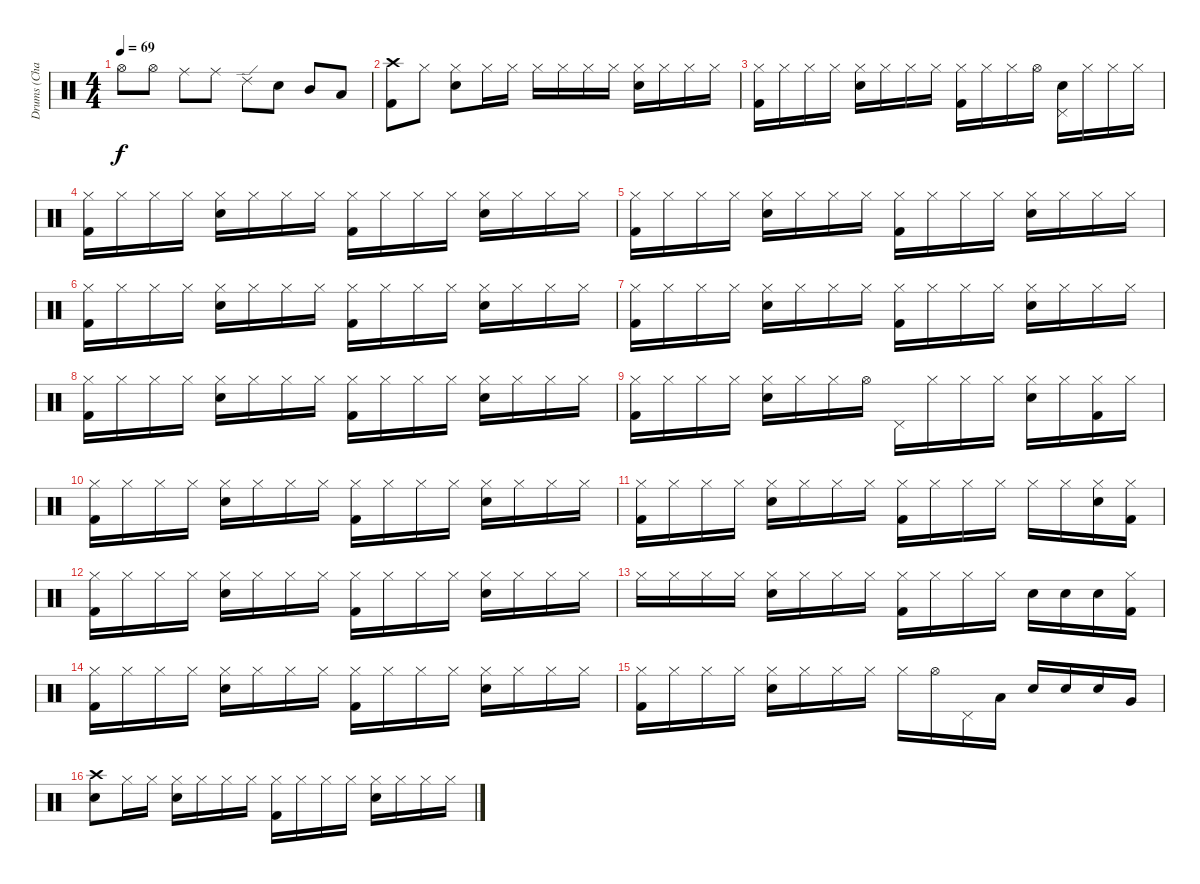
\track ("Drums (Charlie)" "Drums (Cha") {instrument percussion}
\staff {score}
\articulation defaults
\ts (4 4)
\tempo 69
\clef neutral
\ks c "Hi-Hat (open)".8{dy f} "Hi-Hat (open)".8 "Ride (middle)".8 "Ride (middle)".8 "Ride (edge) 2".8 "Snare (hit) 2".8 "Mid Tom (hit)".8 "Low Tom (hit)".8
|
("Crash high (hit)" "Kick (hit) 2").8 "Hi-Hat (closed)".8 ("Hi-Hat (closed)" "Snare (hit) 2").8 "Hi-Hat (closed)".16 "Hi-Hat (closed)".16 "Hi-Hat (closed)".16 "Hi-Hat (closed)".16 "Hi-Hat (closed)".16 "Hi-Hat (closed)".16 ("Hi-Hat (closed)" "Snare (hit) 2").16 "Hi-Hat (closed)".16 "Hi-Hat (closed)".16 "Hi-Hat (closed)".16 |
("Hi-Hat (closed)" "Kick (hit) 2").16 "Hi-Hat (closed)".16 "Hi-Hat (closed)".16 "Hi-Hat (closed)".16 ("Hi-Hat (closed)" "Snare (hit) 2").16 "Hi-Hat (closed)".16 "Hi-Hat (closed)".16 "Hi-Hat (closed)".16 ("Hi-Hat (closed)" "Kick (hit) 2").16 "Hi-Hat (closed)".16 "Hi-Hat (closed)".16 "Hi-Hat (open)".16 ("Pedal Hi-Hat (hit)" "Snare (hit) 2").16 "Hi-Hat (closed)".16 "Hi-Hat (closed)".16 "Hi-Hat (closed)".16 |
("Hi-Hat (closed)" "Kick (hit) 2").16 "Hi-Hat (closed)".16 "Hi-Hat (closed)".16 "Hi-Hat (closed)".16 ("Hi-Hat (closed)" "Snare (hit) 2").16 "Hi-Hat (closed)".16 "Hi-Hat (closed)".16 "Hi-Hat (closed)".16 ("Hi-Hat (closed)" "Kick (hit) 2").16 "Hi-Hat (closed)".16 "Hi-Hat (closed)".16 "Hi-Hat (closed)".16 ("Hi-Hat (closed)" "Snare (hit) 2").16 "Hi-Hat (closed)".16 "Hi-Hat (closed)".16 "Hi-Hat (closed)".16 |
("Hi-Hat (closed)" "Kick (hit) 2").16 "Hi-Hat (closed)".16 "Hi-Hat (closed)".16 "Hi-Hat (closed)".16 ("Hi-Hat (closed)" "Snare (hit) 2").16 "Hi-Hat (closed)".16 "Hi-Hat (closed)".16 "Hi-Hat (closed)".16 ("Hi-Hat (closed)" "Kick (hit) 2").16 "Hi-Hat (closed)".16 "Hi-Hat (closed)".16 "Hi-Hat (closed)".16 ("Hi-Hat (closed)" "Snare (hit) 2").16 "Hi-Hat (closed)".16 "Hi-Hat (closed)".16 "Hi-Hat (closed)".16 |
("Hi-Hat (closed)" "Kick (hit) 2").16 "Hi-Hat (closed)".16 "Hi-Hat (closed)".16 "Hi-Hat (closed)".16 ("Hi-Hat (closed)" "Snare (hit) 2").16 "Hi-Hat (closed)".16 "Hi-Hat (closed)".16 "Hi-Hat (closed)".16 ("Hi-Hat (closed)" "Kick (hit) 2").16 "Hi-Hat (closed)".16 "Hi-Hat (closed)".16 "Hi-Hat (closed)".16 ("Hi-Hat (closed)" "Snare (hit) 2").16 "Hi-Hat (closed)".16 "Hi-Hat (closed)".16 "Hi-Hat (closed)".16 |
("Hi-Hat (closed)" "Kick (hit) 2").16 "Hi-Hat (closed)".16 "Hi-Hat (closed)".16 "Hi-Hat (closed)".16 ("Hi-Hat (closed)" "Snare (hit) 2").16 "Hi-Hat (closed)".16 "Hi-Hat (closed)".16 "Hi-Hat (closed)".16 ("Hi-Hat (closed)" "Kick (hit) 2").16 "Hi-Hat (closed)".16 "Hi-Hat (closed)".16 "Hi-Hat (closed)".16 ("Hi-Hat (closed)" "Snare (hit) 2").16 "Hi-Hat (closed)".16 "Hi-Hat (closed)".16 "Hi-Hat (closed)".16 |
("Hi-Hat (closed)" "Kick (hit) 2").16 "Hi-Hat (closed)".16 "Hi-Hat (closed)".16 "Hi-Hat (closed)".16 ("Hi-Hat (closed)" "Snare (hit) 2").16 "Hi-Hat (closed)".16 "Hi-Hat (closed)".16 "Hi-Hat (closed)".16 ("Hi-Hat (closed)" "Kick (hit) 2").16 "Hi-Hat (closed)".16 "Hi-Hat (closed)".16 "Hi-Hat (closed)".16 ("Hi-Hat (closed)" "Snare (hit) 2").16 "Hi-Hat (closed)".16 "Hi-Hat (closed)".16 "Hi-Hat (closed)".16 |
("Hi-Hat (closed)" "Kick (hit) 2").16 "Hi-Hat (closed)".16 "Hi-Hat (closed)".16 "Hi-Hat (closed)".16 ("Hi-Hat (closed)" "Snare (hit) 2").16 "Hi-Hat (closed)".16 "Hi-Hat (closed)".16 "Hi-Hat (open)".16 "Pedal Hi-Hat (hit)".16 "Hi-Hat (closed)".16 "Hi-Hat (closed)".16 "Hi-Hat (closed)".16 ("Hi-Hat (closed)" "Snare (hit) 2").16 "Hi-Hat (closed)".16 ("Hi-Hat (closed)" "Kick (hit) 2").16 "Hi-Hat (closed)".16 |
("Hi-Hat (closed)" "Kick (hit) 2").16 "Hi-Hat (closed)".16 "Hi-Hat (closed)".16 "Hi-Hat (closed)".16 ("Hi-Hat (closed)" "Snare (hit) 2").16 "Hi-Hat (closed)".16 "Hi-Hat (closed)".16 "Hi-Hat (closed)".16 ("Hi-Hat (closed)" "Kick (hit) 2").16 "Hi-Hat (closed)".16 "Hi-Hat (closed)".16 "Hi-Hat (closed)".16 ("Hi-Hat (closed)" "Snare (hit) 2").16 "Hi-Hat (closed)".16 "Hi-Hat (closed)".16 "Hi-Hat (closed)".16 |
("Hi-Hat (closed)" "Kick (hit) 2").16 "Hi-Hat (closed)".16 "Hi-Hat (closed)".16 "Hi-Hat (closed)".16 ("Hi-Hat (closed)" "Snare (hit) 2").16 "Hi-Hat (closed)".16 "Hi-Hat (closed)".16 "Hi-Hat (closed)".16 ("Hi-Hat (closed)" "Kick (hit) 2").16 "Hi-Hat (closed)".16 "Hi-Hat (closed)".16 "Hi-Hat (closed)".16 "Hi-Hat (closed)".16 "Hi-Hat (closed)".16 ("Hi-Hat (closed)" "Snare (hit) 2").16 ("Hi-Hat (closed)" "Kick (hit) 2").16 |
("Hi-Hat (closed)" "Kick (hit) 2").16 "Hi-Hat (closed)".16 "Hi-Hat (closed)".16 "Hi-Hat (closed)".16 ("Hi-Hat (closed)" "Snare (hit) 2").16 "Hi-Hat (closed)".16 "Hi-Hat (closed)".16 "Hi-Hat (closed)".16 ("Hi-Hat (closed)" "Kick (hit) 2").16 "Hi-Hat (closed)".16 "Hi-Hat (closed)".16 "Hi-Hat (closed)".16 ("Hi-Hat (closed)" "Snare (hit) 2").16 "Hi-Hat (closed)".16 "Hi-Hat (closed)".16 "Hi-Hat (closed)".16 |
"Hi-Hat (closed)".16 "Hi-Hat (closed)".16 "Hi-Hat (closed)".16 "Hi-Hat (closed)".16 ("Hi-Hat (closed)" "Snare (hit) 2").16 "Hi-Hat (closed)".16 "Hi-Hat (closed)".16 "Hi-Hat (closed)".16 ("Hi-Hat (closed)" "Kick (hit) 2").16 "Hi-Hat (closed)".16 "Hi-Hat (closed)".16 "Hi-Hat (closed)".16 "Snare (hit) 2".16 "Snare (hit) 2".16 "Snare (hit) 2".16 ("Hi-Hat (closed)" "Kick (hit) 2").16 |
("Hi-Hat (closed)" "Kick (hit) 2").16 "Hi-Hat (closed)".16 "Hi-Hat (closed)".16 "Hi-Hat (closed)".16 ("Hi-Hat (closed)" "Snare (hit) 2").16 "Hi-Hat (closed)".16 "Hi-Hat (closed)".16 "Hi-Hat (closed)".16 ("Hi-Hat (closed)" "Kick (hit) 2").16 "Hi-Hat (closed)".16 "Hi-Hat (closed)".16 "Hi-Hat (closed)".16 ("Hi-Hat (closed)" "Snare (hit) 2").16 "Hi-Hat (closed)".16 "Hi-Hat (closed)".16 "Hi-Hat (closed)".16 |
("Hi-Hat (closed)" "Kick (hit) 2").16 "Hi-Hat (closed)".16 "Hi-Hat (closed)".16 "Hi-Hat (closed)".16 ("Hi-Hat (closed)" "Snare (hit) 2").16 "Hi-Hat (closed)".16 "Hi-Hat (closed)".16 "Hi-Hat (closed)".16 "Hi-Hat (closed)".16 "Hi-Hat (open)".16 "Pedal Hi-Hat (hit)".16 "Low Tom (hit)".16 "Snare (hit) 2".16 "Snare (hit) 2".16 "Snare (hit) 2".16 "Very Low Tom (hit)".16 |
("Crash high (hit)" "Snare (hit) 2").8 "Hi-Hat (closed)".16 "Hi-Hat (closed)".16 ("Hi-Hat (closed)" "Snare (hit) 2").16 "Hi-Hat (closed)".16 "Hi-Hat (closed)".16 "Hi-Hat (closed)".16 ("Hi-Hat (closed)" "Kick (hit) 2").16 "Hi-Hat (closed)".16 "Hi-Hat (closed)".16 "Hi-Hat (closed)".16 ("Hi-Hat (closed)" "Snare (hit) 2").16 "Hi-Hat (closed)".16 "Hi-Hat (closed)".16 "Hi-Hat (closed)".16
